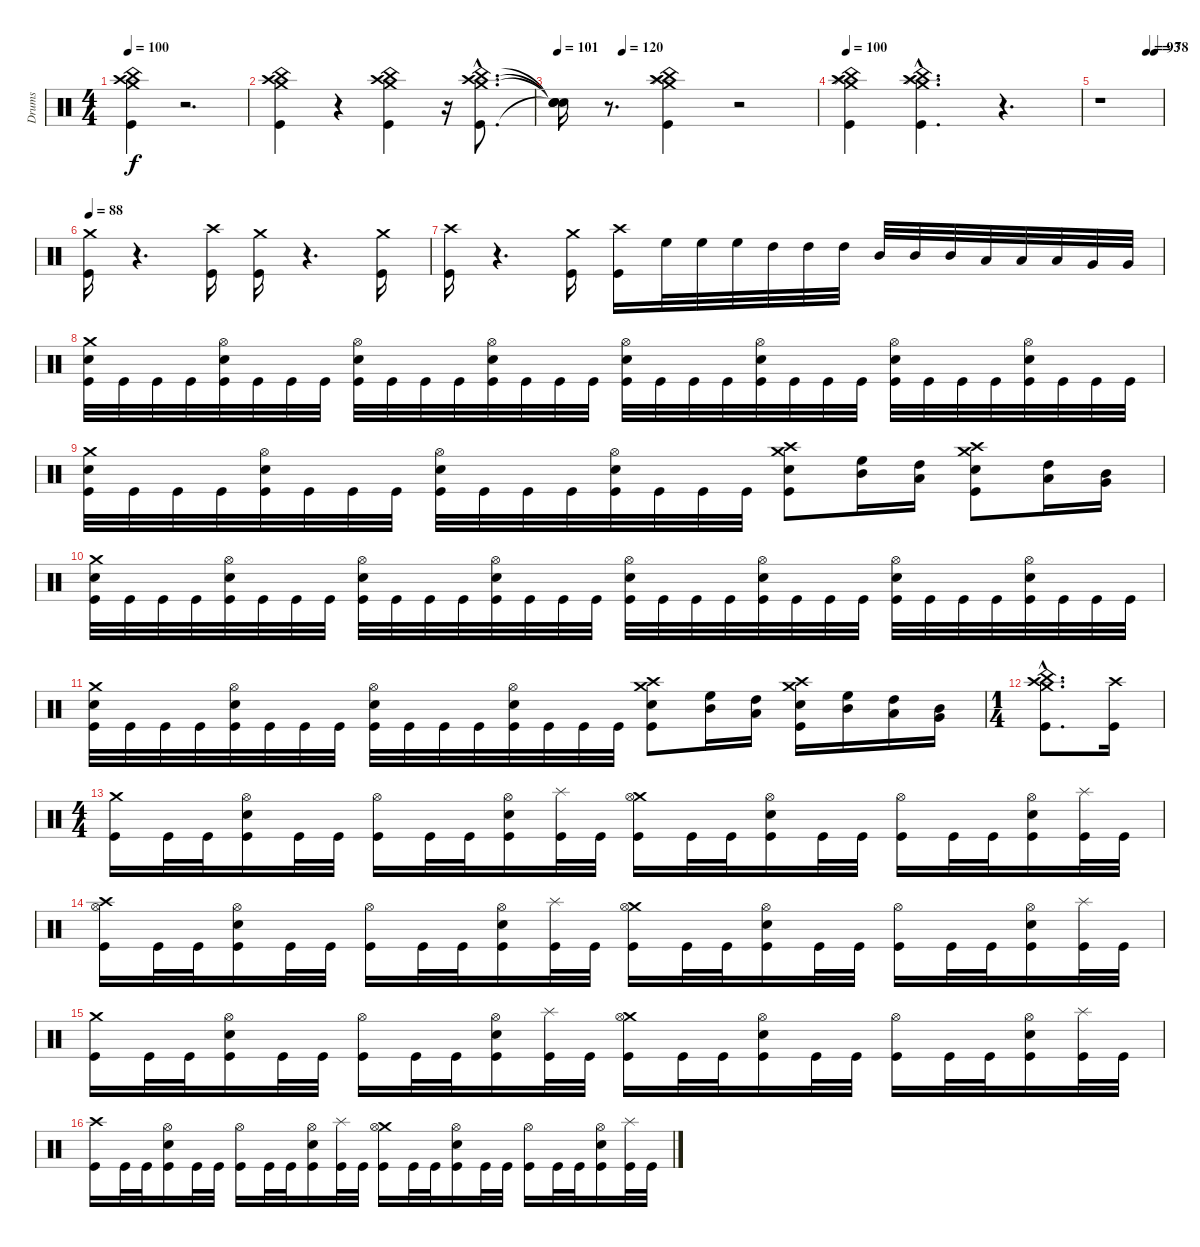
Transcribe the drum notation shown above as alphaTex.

\track ("Drums" "Drums") {instrument percussion}
\staff {score}
\articulation defaults
\ts (4 4)
\tempo 100
\clef neutral
\ks c
("Crash medium (hit)" "China (hit)" "Crash high (hit)" "Kick (hit)").4{dy f} r.2{d} |
("Crash medium (hit)" "China (hit)" "Crash high (hit)" "Kick (hit)").4 r.4 ("Crash medium (hit)" "China (hit)" "Crash high (hit)" "Kick (hit)").4 r.16 ("Kick (hit)"{hac} "Crash high (hit)"{hac} "China (hit)"{hac} "Crash medium (hit)"{hac}).8{d} |
\tempo 101
\tempo (120 0.25)
("Snare (hit)"{t} "Snare (hit)"{t} "Snare (hit)"{t} "Snare (hit)"{t}).16 r.8{d} ("Splash (hit)" "Crash medium (hit)" "China (hit)" "Crash high (hit)" "Kick (hit)").4 r.2 |
\tempo 100
("Crash medium (hit)" "Splash (hit)" "China (hit)" "Crash high (hit)" "Kick (hit)").4 ("Crash high (hit)"{hac} "China (hit)"{hac} "Splash (hit)"{hac} "Crash medium (hit)"{hac} "Kick (hit)"{hac}).4{d} r.4{d} |
\tempo (93 0.75)
\tempo (78 0.875)
r.1 |
\tempo 88
("Crash medium (hit)" "Kick (hit)").16 r.4{d} ("Crash high (hit)" "Kick (hit)").16 ("Crash medium (hit)" "Kick (hit)").16 r.4{d} ("Crash medium (hit)" "Kick (hit)").16 |
("Crash high (hit)" "Kick (hit)").16 r.4{d} ("Crash medium (hit)" "Kick (hit)").16 ("Crash high (hit)" "Kick (hit)").16 "High Floor Tom (hit)".32 "High Floor Tom (hit)".32 "High Floor Tom (hit)".32 "High Tom (hit)".32 "High Tom (hit)".32 "High Tom (hit)".32 "Mid Tom (hit)".32 "Mid Tom (hit)".32 "Mid Tom (hit)".32 "Low Tom (hit)".32 "Low Tom (hit)".32 "Low Tom (hit)".32 "Very Low Tom (hit)".32 "Very Low Tom (hit)".32 |
("Crash medium (hit)" "Kick (hit)" "Snare (hit) 2").32 "Kick (hit)".32 "Kick (hit)".32 "Kick (hit)".32 ("Hi-Hat (open)" "Snare (hit) 2" "Kick (hit)").32 "Kick (hit)".32 "Kick (hit)".32 "Kick (hit)".32 ("Hi-Hat (open)" "Kick (hit)" "Snare (hit) 2").32 "Kick (hit)".32 "Kick (hit)".32 "Kick (hit)".32 ("Hi-Hat (open)" "Kick (hit)" "Snare (hit) 2").32 "Kick (hit)".32 "Kick (hit)".32 "Kick (hit)".32 ("Hi-Hat (open)" "Kick (hit)" "Snare (hit) 2").32 "Kick (hit)".32 "Kick (hit)".32 "Kick (hit)".32 ("Hi-Hat (open)" "Kick (hit)" "Snare (hit) 2").32 "Kick (hit)".32 "Kick (hit)".32 "Kick (hit)".32 ("Hi-Hat (open)" "Kick (hit)" "Snare (hit) 2").32 "Kick (hit)".32 "Kick (hit)".32 "Kick (hit)".32 ("Hi-Hat (open)" "Kick (hit)" "Snare (hit) 2").32 "Kick (hit)".32 "Kick (hit)".32 "Kick (hit)".32 |
("Crash medium (hit)" "Kick (hit)" "Snare (hit) 2").32 "Kick (hit)".32 "Kick (hit)".32 "Kick (hit)".32 ("Hi-Hat (open)" "Snare (hit) 2" "Kick (hit)").32 "Kick (hit)".32 "Kick (hit)".32 "Kick (hit)".32 ("Hi-Hat (open)" "Kick (hit)" "Snare (hit) 2").32 "Kick (hit)".32 "Kick (hit)".32 "Kick (hit)".32 ("Hi-Hat (open)" "Kick (hit)" "Snare (hit) 2").32 "Kick (hit)".32 "Kick (hit)".32 "Kick (hit)".32 ("Crash high (hit)" "Crash medium (hit)" "Kick (hit)" "Snare (hit) 2").8 ("Mid Tom (hit)" "High Floor Tom (hit)").16 ("Low Tom (hit)" "High Tom (hit)").16 ("Crash high (hit)" "Kick (hit)" "Snare (hit) 2" "Crash medium (hit)").8 ("Low Tom (hit)" "High Tom (hit)").16 ("Very Low Tom (hit)" "Mid Tom (hit)").16 |
("Crash medium (hit)" "Kick (hit)" "Snare (hit) 2").32 "Kick (hit)".32 "Kick (hit)".32 "Kick (hit)".32 ("Hi-Hat (open)" "Snare (hit) 2" "Kick (hit)").32 "Kick (hit)".32 "Kick (hit)".32 "Kick (hit)".32 ("Hi-Hat (open)" "Kick (hit)" "Snare (hit) 2").32 "Kick (hit)".32 "Kick (hit)".32 "Kick (hit)".32 ("Hi-Hat (open)" "Kick (hit)" "Snare (hit) 2").32 "Kick (hit)".32 "Kick (hit)".32 "Kick (hit)".32 ("Hi-Hat (open)" "Kick (hit)" "Snare (hit) 2").32 "Kick (hit)".32 "Kick (hit)".32 "Kick (hit)".32 ("Hi-Hat (open)" "Kick (hit)" "Snare (hit) 2").32 "Kick (hit)".32 "Kick (hit)".32 "Kick (hit)".32 ("Hi-Hat (open)" "Kick (hit)" "Snare (hit) 2").32 "Kick (hit)".32 "Kick (hit)".32 "Kick (hit)".32 ("Hi-Hat (open)" "Kick (hit)" "Snare (hit) 2").32 "Kick (hit)".32 "Kick (hit)".32 "Kick (hit)".32 |
("Crash medium (hit)" "Kick (hit)" "Snare (hit) 2").32 "Kick (hit)".32 "Kick (hit)".32 "Kick (hit)".32 ("Hi-Hat (open)" "Snare (hit) 2" "Kick (hit)").32 "Kick (hit)".32 "Kick (hit)".32 "Kick (hit)".32 ("Hi-Hat (open)" "Kick (hit)" "Snare (hit) 2").32 "Kick (hit)".32 "Kick (hit)".32 "Kick (hit)".32 ("Hi-Hat (open)" "Kick (hit)" "Snare (hit) 2").32 "Kick (hit)".32 "Kick (hit)".32 "Kick (hit)".32 ("Crash high (hit)" "Crash medium (hit)" "Kick (hit)" "Snare (hit) 2").8 ("Mid Tom (hit)" "High Floor Tom (hit)").16 ("Low Tom (hit)" "High Tom (hit)").16 ("Crash high (hit)" "Kick (hit)" "Snare (hit) 2" "Crash medium (hit)").16 ("Mid Tom (hit)" "High Floor Tom (hit)").16 ("Low Tom (hit)" "High Tom (hit)").16 ("Very Low Tom (hit)" "Mid Tom (hit)").16 |
\ts (1 4)
("Crash high (hit)"{hac} "Kick (hit)"{hac} "China (hit)"{hac} "Crash medium (hit)"{hac}).8{d} ("Crash high (hit)" "Kick (hit)").16 |
\ts (4 4)
("Crash medium (hit)" "Kick (hit)").16 "Kick (hit)".32 "Kick (hit)".32 ("Hi-Hat (open)" "Snare (hit) 2" "Kick (hit)").16 "Kick (hit)".32 "Kick (hit)".32 ("Hi-Hat (open)" "Kick (hit)").16 "Kick (hit)".32 "Kick (hit)".32 ("Hi-Hat (open)" "Snare (hit) 2" "Kick (hit)").16 ("Splash (hit)" "Kick (hit)").32 "Kick (hit)".32 ("Crash medium (hit)" "Hi-Hat (open)" "Kick (hit)").16 "Kick (hit)".32 "Kick (hit)".32 ("Snare (hit) 2" "Hi-Hat (open)" "Kick (hit)").16 "Kick (hit)".32 "Kick (hit)".32 ("Hi-Hat (open)" "Kick (hit)").16 "Kick (hit)".32 "Kick (hit)".32 ("Snare (hit) 2" "Hi-Hat (open)" "Kick (hit)").16 ("Splash (hit)" "Kick (hit)").32 "Kick (hit)".32 |
("Crash high (hit)" "Hi-Hat (open)" "Kick (hit)").16 "Kick (hit)".32 "Kick (hit)".32 ("Hi-Hat (open)" "Snare (hit) 2" "Kick (hit)").16 "Kick (hit)".32 "Kick (hit)".32 ("Hi-Hat (open)" "Kick (hit)").16 "Kick (hit)".32 "Kick (hit)".32 ("Hi-Hat (open)" "Snare (hit) 2" "Kick (hit)").16 ("Splash (hit)" "Kick (hit)").32 "Kick (hit)".32 ("Crash medium (hit)" "Hi-Hat (open)" "Kick (hit)").16 "Kick (hit)".32 "Kick (hit)".32 ("Snare (hit) 2" "Hi-Hat (open)" "Kick (hit)").16 "Kick (hit)".32 "Kick (hit)".32 ("Hi-Hat (open)" "Kick (hit)").16 "Kick (hit)".32 "Kick (hit)".32 ("Snare (hit) 2" "Hi-Hat (open)" "Kick (hit)").16 ("Splash (hit)" "Kick (hit)").32 "Kick (hit)".32 |
("Crash medium (hit)" "Kick (hit)").16 "Kick (hit)".32 "Kick (hit)".32 ("Hi-Hat (open)" "Snare (hit) 2" "Kick (hit)").16 "Kick (hit)".32 "Kick (hit)".32 ("Hi-Hat (open)" "Kick (hit)").16 "Kick (hit)".32 "Kick (hit)".32 ("Hi-Hat (open)" "Snare (hit) 2" "Kick (hit)").16 ("Splash (hit)" "Kick (hit)").32 "Kick (hit)".32 ("Crash medium (hit)" "Hi-Hat (open)" "Kick (hit)").16 "Kick (hit)".32 "Kick (hit)".32 ("Snare (hit) 2" "Hi-Hat (open)" "Kick (hit)").16 "Kick (hit)".32 "Kick (hit)".32 ("Hi-Hat (open)" "Kick (hit)").16 "Kick (hit)".32 "Kick (hit)".32 ("Snare (hit) 2" "Hi-Hat (open)" "Kick (hit)").16 ("Splash (hit)" "Kick (hit)").32 "Kick (hit)".32 |
("Crash high (hit)" "Kick (hit)").16 "Kick (hit)".32 "Kick (hit)".32 ("Hi-Hat (open)" "Snare (hit) 2" "Kick (hit)").16 "Kick (hit)".32 "Kick (hit)".32 ("Hi-Hat (open)" "Kick (hit)").16 "Kick (hit)".32 "Kick (hit)".32 ("Hi-Hat (open)" "Snare (hit) 2" "Kick (hit)").16 ("Splash (hit)" "Kick (hit)").32 "Kick (hit)".32 ("Crash medium (hit)" "Hi-Hat (open)" "Kick (hit)").16 "Kick (hit)".32 "Kick (hit)".32 ("Snare (hit) 2" "Hi-Hat (open)" "Kick (hit)").16 "Kick (hit)".32 "Kick (hit)".32 ("Hi-Hat (open)" "Kick (hit)").16 "Kick (hit)".32 "Kick (hit)".32 ("Snare (hit) 2" "Hi-Hat (open)" "Kick (hit)").16 ("Splash (hit)" "Kick (hit)").32 "Kick (hit)".32
